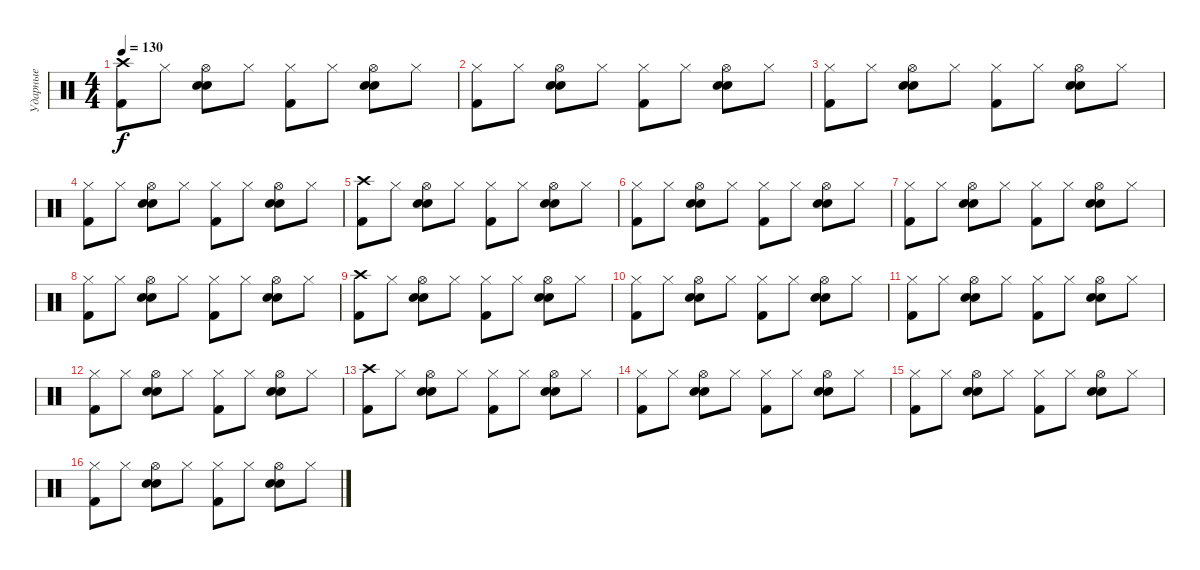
\track ("Ударные" "Ударные") {instrument percussion}
\staff {score}
\articulation defaults
\ts (4 4)
\tempo 130
\clef neutral
\ks c
("Crash high (hit)" "Kick (hit) 2").8{dy f} "Hi-Hat (closed)".8 ("Hi-Hat (open)" "Hand Clap (hit)" "Snare (hit) 2").8 "Hi-Hat (closed)".8 ("Hi-Hat (closed)" "Kick (hit) 2").8 "Hi-Hat (closed)".8 ("Hi-Hat (open)" "Hand Clap (hit)" "Snare (hit) 2").8 "Hi-Hat (closed)".8 |
("Hi-Hat (closed)" "Kick (hit) 2").8 "Hi-Hat (closed)".8 ("Hi-Hat (open)" "Hand Clap (hit)" "Snare (hit) 2").8 "Hi-Hat (closed)".8 ("Hi-Hat (closed)" "Kick (hit) 2").8 "Hi-Hat (closed)".8 ("Hi-Hat (open)" "Hand Clap (hit)" "Snare (hit) 2").8 "Hi-Hat (closed)".8 |
("Hi-Hat (closed)" "Kick (hit) 2").8 "Hi-Hat (closed)".8 ("Hi-Hat (open)" "Hand Clap (hit)" "Snare (hit) 2").8 "Hi-Hat (closed)".8 ("Hi-Hat (closed)" "Kick (hit) 2").8 "Hi-Hat (closed)".8 ("Hi-Hat (open)" "Hand Clap (hit)" "Snare (hit) 2").8 "Hi-Hat (closed)".8 |
("Hi-Hat (closed)" "Kick (hit) 2").8 "Hi-Hat (closed)".8 ("Hi-Hat (open)" "Hand Clap (hit)" "Snare (hit) 2").8 "Hi-Hat (closed)".8 ("Hi-Hat (closed)" "Kick (hit) 2").8 "Hi-Hat (closed)".8 ("Hi-Hat (open)" "Hand Clap (hit)" "Snare (hit) 2").8 "Hi-Hat (closed)".8 |
("Crash high (hit)" "Kick (hit) 2").8{volume 14} "Hi-Hat (closed)".8 ("Hi-Hat (open)" "Hand Clap (hit)" "Snare (hit) 2").8 "Hi-Hat (closed)".8 ("Hi-Hat (closed)" "Kick (hit) 2").8 "Hi-Hat (closed)".8 ("Hi-Hat (open)" "Hand Clap (hit)" "Snare (hit) 2").8 "Hi-Hat (closed)".8 |
("Hi-Hat (closed)" "Kick (hit) 2").8 "Hi-Hat (closed)".8 ("Hi-Hat (open)" "Hand Clap (hit)" "Snare (hit) 2").8 "Hi-Hat (closed)".8 ("Hi-Hat (closed)" "Kick (hit) 2").8 "Hi-Hat (closed)".8 ("Hi-Hat (open)" "Hand Clap (hit)" "Snare (hit) 2").8 "Hi-Hat (closed)".8 |
("Hi-Hat (closed)" "Kick (hit) 2").8 "Hi-Hat (closed)".8 ("Hi-Hat (open)" "Hand Clap (hit)" "Snare (hit) 2").8 "Hi-Hat (closed)".8 ("Hi-Hat (closed)" "Kick (hit) 2").8 "Hi-Hat (closed)".8 ("Hi-Hat (open)" "Hand Clap (hit)" "Snare (hit) 2").8 "Hi-Hat (closed)".8 |
("Hi-Hat (closed)" "Kick (hit) 2").8 "Hi-Hat (closed)".8 ("Hi-Hat (open)" "Hand Clap (hit)" "Snare (hit) 2").8 "Hi-Hat (closed)".8 ("Hi-Hat (closed)" "Kick (hit) 2").8 "Hi-Hat (closed)".8 ("Hi-Hat (open)" "Hand Clap (hit)" "Snare (hit) 2").8 "Hi-Hat (closed)".8 |
("Crash high (hit)" "Kick (hit) 2").8 "Hi-Hat (closed)".8 ("Hi-Hat (open)" "Hand Clap (hit)" "Snare (hit) 2").8 "Hi-Hat (closed)".8 ("Hi-Hat (closed)" "Kick (hit) 2").8 "Hi-Hat (closed)".8 ("Hi-Hat (open)" "Hand Clap (hit)" "Snare (hit) 2").8 "Hi-Hat (closed)".8 |
("Hi-Hat (closed)" "Kick (hit) 2").8 "Hi-Hat (closed)".8 ("Hi-Hat (open)" "Hand Clap (hit)" "Snare (hit) 2").8 "Hi-Hat (closed)".8 ("Hi-Hat (closed)" "Kick (hit) 2").8 "Hi-Hat (closed)".8 ("Hi-Hat (open)" "Hand Clap (hit)" "Snare (hit) 2").8 "Hi-Hat (closed)".8 |
("Hi-Hat (closed)" "Kick (hit) 2").8 "Hi-Hat (closed)".8 ("Hi-Hat (open)" "Hand Clap (hit)" "Snare (hit) 2").8 "Hi-Hat (closed)".8 ("Hi-Hat (closed)" "Kick (hit) 2").8 "Hi-Hat (closed)".8 ("Hi-Hat (open)" "Hand Clap (hit)" "Snare (hit) 2").8 "Hi-Hat (closed)".8 |
("Hi-Hat (closed)" "Kick (hit) 2").8 "Hi-Hat (closed)".8 ("Hi-Hat (open)" "Hand Clap (hit)" "Snare (hit) 2").8 "Hi-Hat (closed)".8 ("Hi-Hat (closed)" "Kick (hit) 2").8 "Hi-Hat (closed)".8 ("Hi-Hat (open)" "Hand Clap (hit)" "Snare (hit) 2").8 "Hi-Hat (closed)".8 |
("Crash high (hit)" "Kick (hit) 2").8{volume 14} "Hi-Hat (closed)".8 ("Hi-Hat (open)" "Hand Clap (hit)" "Snare (hit) 2").8 "Hi-Hat (closed)".8 ("Hi-Hat (closed)" "Kick (hit) 2").8 "Hi-Hat (closed)".8 ("Hi-Hat (open)" "Hand Clap (hit)" "Snare (hit) 2").8 "Hi-Hat (closed)".8 |
("Hi-Hat (closed)" "Kick (hit) 2").8 "Hi-Hat (closed)".8 ("Hi-Hat (open)" "Hand Clap (hit)" "Snare (hit) 2").8 "Hi-Hat (closed)".8 ("Hi-Hat (closed)" "Kick (hit) 2").8 "Hi-Hat (closed)".8 ("Hi-Hat (open)" "Hand Clap (hit)" "Snare (hit) 2").8 "Hi-Hat (closed)".8 |
("Hi-Hat (closed)" "Kick (hit) 2").8 "Hi-Hat (closed)".8 ("Hi-Hat (open)" "Hand Clap (hit)" "Snare (hit) 2").8 "Hi-Hat (closed)".8 ("Hi-Hat (closed)" "Kick (hit) 2").8 "Hi-Hat (closed)".8 ("Hi-Hat (open)" "Hand Clap (hit)" "Snare (hit) 2").8 "Hi-Hat (closed)".8 |
("Hi-Hat (closed)" "Kick (hit) 2").8 "Hi-Hat (closed)".8 ("Hi-Hat (open)" "Hand Clap (hit)" "Snare (hit) 2").8 "Hi-Hat (closed)".8 ("Hi-Hat (closed)" "Kick (hit) 2").8 "Hi-Hat (closed)".8 ("Hi-Hat (open)" "Hand Clap (hit)" "Snare (hit) 2").8 "Hi-Hat (closed)".8
